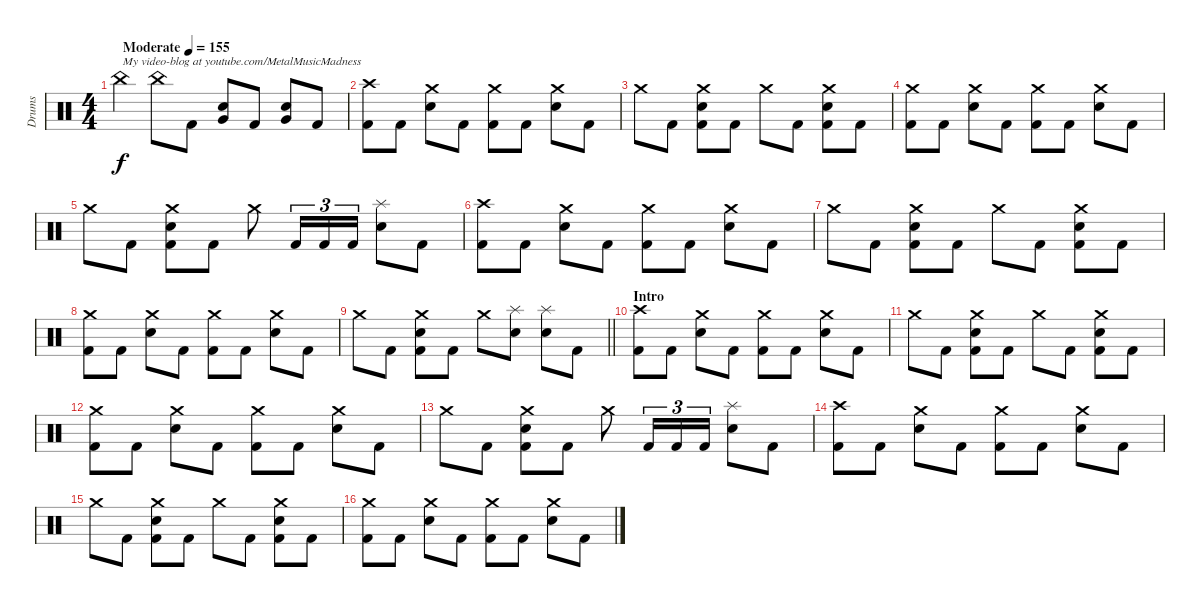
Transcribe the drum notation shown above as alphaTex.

\track ("Drums" "Drums") {instrument percussion}
\staff {score}
\articulation defaults
\ts (4 4)
\tempo (155 "Moderate")
\clef neutral
\ks c "China (hit)".4{txt "My video-blog at youtube.com/MetalMusicMadness" dy f} "China (hit)".8 "Kick (hit) 2".8
("Very Low Tom (hit)" "Electric Snare (hit)").8 "Kick (hit) 2".8 ("Very Low Tom (hit)" "Electric Snare (hit)").8 "Kick (hit) 2".8 |
("Crash high (hit)" "Kick (hit) 2").8 "Kick (hit) 2".8 ("Crash medium (hit)" "Electric Snare (hit)").8 "Kick (hit) 2".8 ("Crash medium (hit)" "Kick (hit) 2").8 "Kick (hit) 2".8 ("Crash medium (hit)" "Electric Snare (hit)").8 "Kick (hit) 2".8 |
"Crash medium (hit)".8 "Kick (hit) 2".8 ("Crash medium (hit)" "Electric Snare (hit)" "Kick (hit) 2").8 "Kick (hit) 2".8 "Crash medium (hit)".8 "Kick (hit) 2".8 ("Crash medium (hit)" "Electric Snare (hit)" "Kick (hit) 2").8 "Kick (hit) 2".8 |
("Crash medium (hit)" "Kick (hit) 2").8 "Kick (hit) 2".8 ("Crash medium (hit)" "Electric Snare (hit)").8 "Kick (hit) 2".8 ("Crash medium (hit)" "Kick (hit) 2").8 "Kick (hit) 2".8 ("Crash medium (hit)" "Electric Snare (hit)").8 "Kick (hit) 2".8 |
"Crash medium (hit)".8 "Kick (hit) 2".8 ("Crash medium (hit)" "Electric Snare (hit)" "Kick (hit) 2").8 "Kick (hit) 2".8 "Crash medium (hit)".8 "Kick (hit) 2".16{tu (3 2)} "Kick (hit) 2".16{tu (3 2)} "Kick (hit) 2".16{tu (3 2)} ("Splash (hit)" "Electric Snare (hit)").8 "Kick (hit) 2".8 |
("Crash high (hit)" "Kick (hit) 2").8 "Kick (hit) 2".8 ("Crash medium (hit)" "Electric Snare (hit)").8 "Kick (hit) 2".8 ("Crash medium (hit)" "Kick (hit) 2").8 "Kick (hit) 2".8 ("Crash medium (hit)" "Electric Snare (hit)").8 "Kick (hit) 2".8 |
"Crash medium (hit)".8 "Kick (hit) 2".8 ("Crash medium (hit)" "Electric Snare (hit)" "Kick (hit) 2").8 "Kick (hit) 2".8 "Crash medium (hit)".8 "Kick (hit) 2".8 ("Crash medium (hit)" "Electric Snare (hit)" "Kick (hit) 2").8 "Kick (hit) 2".8 |
("Crash medium (hit)" "Kick (hit) 2").8 "Kick (hit) 2".8 ("Crash medium (hit)" "Electric Snare (hit)").8 "Kick (hit) 2".8 ("Crash medium (hit)" "Kick (hit) 2").8 "Kick (hit) 2".8 ("Crash medium (hit)" "Electric Snare (hit)").8 "Kick (hit) 2".8 |
\barLineRight lightlight "Crash medium (hit)".8 "Kick (hit) 2".8
("Crash medium (hit)" "Electric Snare (hit)" "Kick (hit) 2").8 "Kick (hit) 2".8 "Crash medium (hit)".8 ("Splash (hit)" "Electric Snare (hit)").8 ("Splash (hit)" "Electric Snare (hit)").8 "Kick (hit) 2".8 |
\section ("" "Intro")
("Crash high (hit)" "Kick (hit) 2").8 "Kick (hit) 2".8 ("Crash medium (hit)" "Electric Snare (hit)").8 "Kick (hit) 2".8 ("Crash medium (hit)" "Kick (hit) 2").8 "Kick (hit) 2".8 ("Crash medium (hit)" "Electric Snare (hit)").8 "Kick (hit) 2".8 |
"Crash medium (hit)".8 "Kick (hit) 2".8 ("Crash medium (hit)" "Electric Snare (hit)" "Kick (hit) 2").8 "Kick (hit) 2".8 "Crash medium (hit)".8 "Kick (hit) 2".8 ("Crash medium (hit)" "Electric Snare (hit)" "Kick (hit) 2").8 "Kick (hit) 2".8 |
("Crash medium (hit)" "Kick (hit) 2").8 "Kick (hit) 2".8 ("Crash medium (hit)" "Electric Snare (hit)").8 "Kick (hit) 2".8 ("Crash medium (hit)" "Kick (hit) 2").8 "Kick (hit) 2".8 ("Crash medium (hit)" "Electric Snare (hit)").8 "Kick (hit) 2".8 |
"Crash medium (hit)".8 "Kick (hit) 2".8 ("Crash medium (hit)" "Electric Snare (hit)" "Kick (hit) 2").8 "Kick (hit) 2".8 "Crash medium (hit)".8 "Kick (hit) 2".16{tu (3 2)} "Kick (hit) 2".16{tu (3 2)} "Kick (hit) 2".16{tu (3 2)} ("Splash (hit)" "Electric Snare (hit)").8 "Kick (hit) 2".8 |
("Crash high (hit)" "Kick (hit) 2").8 "Kick (hit) 2".8 ("Crash medium (hit)" "Electric Snare (hit)").8 "Kick (hit) 2".8 ("Crash medium (hit)" "Kick (hit) 2").8 "Kick (hit) 2".8 ("Crash medium (hit)" "Electric Snare (hit)").8 "Kick (hit) 2".8 |
"Crash medium (hit)".8 "Kick (hit) 2".8 ("Crash medium (hit)" "Electric Snare (hit)" "Kick (hit) 2").8 "Kick (hit) 2".8 "Crash medium (hit)".8 "Kick (hit) 2".8 ("Crash medium (hit)" "Electric Snare (hit)" "Kick (hit) 2").8 "Kick (hit) 2".8 |
("Crash medium (hit)" "Kick (hit) 2").8 "Kick (hit) 2".8 ("Crash medium (hit)" "Electric Snare (hit)").8 "Kick (hit) 2".8 ("Crash medium (hit)" "Kick (hit) 2").8 "Kick (hit) 2".8 ("Crash medium (hit)" "Electric Snare (hit)").8 "Kick (hit) 2".8
